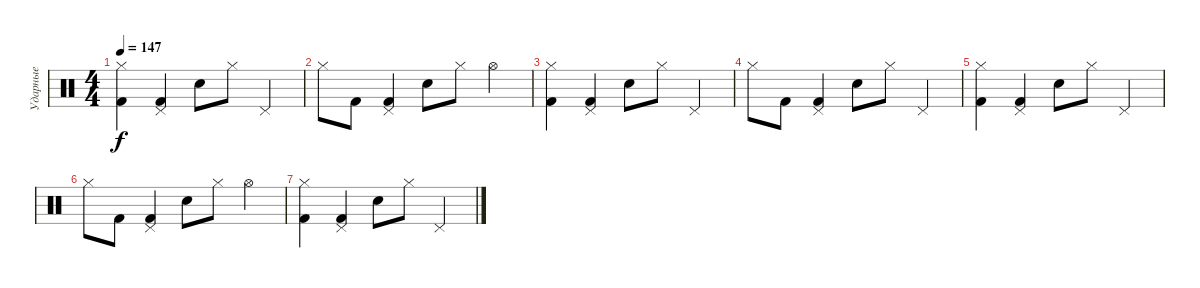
\track ("Ударные" "Ударные") {instrument percussion}
\staff {score}
\articulation defaults
\ts (4 4)
\tempo 147
\clef neutral
\ks c
("Hi-Hat (closed)" "Kick (hit) 2").4{dy f} ("Pedal Hi-Hat (hit)" "Kick (hit) 2").4 "Electric Snare (hit)".8 "Hi-Hat (closed)".8 "Pedal Hi-Hat (hit)".4 |
"Hi-Hat (closed)".8 "Kick (hit) 2".8 ("Pedal Hi-Hat (hit)" "Kick (hit) 2").4 "Electric Snare (hit)".8 "Hi-Hat (closed)".8 "Hi-Hat (open)".4 |
("Hi-Hat (closed)" "Kick (hit) 2").4 ("Pedal Hi-Hat (hit)" "Kick (hit) 2").4 "Electric Snare (hit)".8 "Hi-Hat (closed)".8 "Pedal Hi-Hat (hit)".4 |
"Hi-Hat (closed)".8 "Kick (hit) 2".8 ("Pedal Hi-Hat (hit)" "Kick (hit) 2").4 "Electric Snare (hit)".8 "Hi-Hat (closed)".8 "Pedal Hi-Hat (hit)".4 |
("Hi-Hat (closed)" "Kick (hit) 2").4 ("Pedal Hi-Hat (hit)" "Kick (hit) 2").4 "Electric Snare (hit)".8 "Hi-Hat (closed)".8 "Pedal Hi-Hat (hit)".4 |
"Hi-Hat (closed)".8 "Kick (hit) 2".8 ("Pedal Hi-Hat (hit)" "Kick (hit) 2").4 "Electric Snare (hit)".8 "Hi-Hat (closed)".8 "Hi-Hat (open)".4 |
("Hi-Hat (closed)" "Kick (hit) 2").4 ("Pedal Hi-Hat (hit)" "Kick (hit) 2").4 "Electric Snare (hit)".8 "Hi-Hat (closed)".8 "Pedal Hi-Hat (hit)".4
